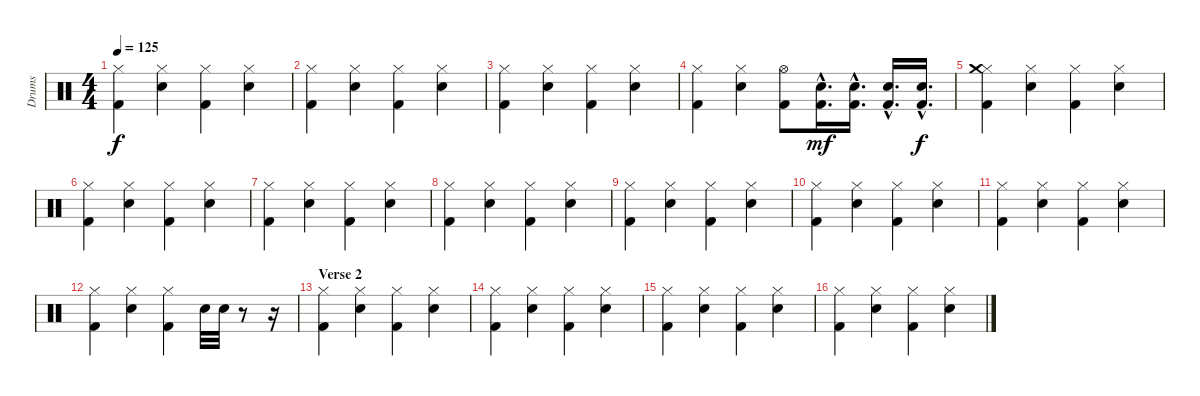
\track ("Drums" "Drums") {instrument percussion}
\staff {score}
\articulation defaults
\ts (4 4)
\tempo 125
\clef neutral
\ks c
("Hi-Hat (closed)" "Kick (hit) 2").4{dy f} ("Hi-Hat (closed)" "Electric Snare (hit)").4 ("Hi-Hat (closed)" "Kick (hit) 2").4 ("Hi-Hat (closed)" "Electric Snare (hit)").4 |
("Hi-Hat (closed)" "Kick (hit) 2").4 ("Hi-Hat (closed)" "Electric Snare (hit)").4 ("Hi-Hat (closed)" "Kick (hit) 2").4 ("Hi-Hat (closed)" "Electric Snare (hit)").4 |
("Hi-Hat (closed)" "Kick (hit) 2").4 ("Hi-Hat (closed)" "Electric Snare (hit)").4 ("Hi-Hat (closed)" "Kick (hit) 2").4 ("Hi-Hat (closed)" "Electric Snare (hit)").4 |
("Hi-Hat (closed)" "Kick (hit) 2").4 ("Hi-Hat (closed)" "Electric Snare (hit)").4 ("Hi-Hat (open)" "Kick (hit) 2").8 ("Electric Snare (hit)"{hac} "Kick (hit) 2"{hac}).16{d dy mf} ("Electric Snare (hit)"{hac} "Kick (hit) 2"{hac}).16{d} ("Electric Snare (hit)"{hac} "Kick (hit) 2"{hac}).16{d} ("Electric Snare (hit)"{hac} "Kick (hit) 2"{hac}).16{d dy f} |
("Hi-Hat (closed)" "Crash medium (hit)" "Kick (hit) 2").4 ("Hi-Hat (closed)" "Electric Snare (hit)").4 ("Hi-Hat (closed)" "Kick (hit) 2").4 ("Hi-Hat (closed)" "Electric Snare (hit)").4 |
("Hi-Hat (closed)" "Kick (hit) 2").4 ("Hi-Hat (closed)" "Electric Snare (hit)").4 ("Hi-Hat (closed)" "Kick (hit) 2").4 ("Hi-Hat (closed)" "Electric Snare (hit)").4 |
("Hi-Hat (closed)" "Kick (hit) 2").4 ("Hi-Hat (closed)" "Electric Snare (hit)").4 ("Hi-Hat (closed)" "Kick (hit) 2").4 ("Hi-Hat (closed)" "Electric Snare (hit)").4 |
("Hi-Hat (closed)" "Kick (hit) 2").4 ("Hi-Hat (closed)" "Electric Snare (hit)").4 ("Hi-Hat (closed)" "Kick (hit) 2").4 ("Hi-Hat (closed)" "Electric Snare (hit)").4 |
("Hi-Hat (closed)" "Kick (hit) 2").4 ("Hi-Hat (closed)" "Electric Snare (hit)").4 ("Hi-Hat (closed)" "Kick (hit) 2").4 ("Hi-Hat (closed)" "Electric Snare (hit)").4 |
("Hi-Hat (closed)" "Kick (hit) 2").4 ("Hi-Hat (closed)" "Electric Snare (hit)").4 ("Hi-Hat (closed)" "Kick (hit) 2").4 ("Hi-Hat (closed)" "Electric Snare (hit)").4 |
("Hi-Hat (closed)" "Kick (hit) 2").4 ("Hi-Hat (closed)" "Electric Snare (hit)").4 ("Hi-Hat (closed)" "Kick (hit) 2").4 ("Hi-Hat (closed)" "Electric Snare (hit)").4 |
("Hi-Hat (closed)" "Kick (hit) 2").4 ("Hi-Hat (closed)" "Electric Snare (hit)").4 ("Hi-Hat (closed)" "Kick (hit) 2").4 "Electric Snare (hit)".32 "Electric Snare (hit)".32 r.8 r.16 |
\section ("" "Verse 2")
("Hi-Hat (closed)" "Kick (hit) 2").4 ("Hi-Hat (closed)" "Electric Snare (hit)").4 ("Hi-Hat (closed)" "Kick (hit) 2").4 ("Hi-Hat (closed)" "Electric Snare (hit)").4 |
("Hi-Hat (closed)" "Kick (hit) 2").4 ("Hi-Hat (closed)" "Electric Snare (hit)").4 ("Hi-Hat (closed)" "Kick (hit) 2").4 ("Hi-Hat (closed)" "Electric Snare (hit)").4 |
("Hi-Hat (closed)" "Kick (hit) 2").4 ("Hi-Hat (closed)" "Electric Snare (hit)").4 ("Hi-Hat (closed)" "Kick (hit) 2").4 ("Hi-Hat (closed)" "Electric Snare (hit)").4 |
("Hi-Hat (closed)" "Kick (hit) 2").4 ("Hi-Hat (closed)" "Electric Snare (hit)").4 ("Hi-Hat (closed)" "Kick (hit) 2").4 ("Hi-Hat (closed)" "Electric Snare (hit)").4
